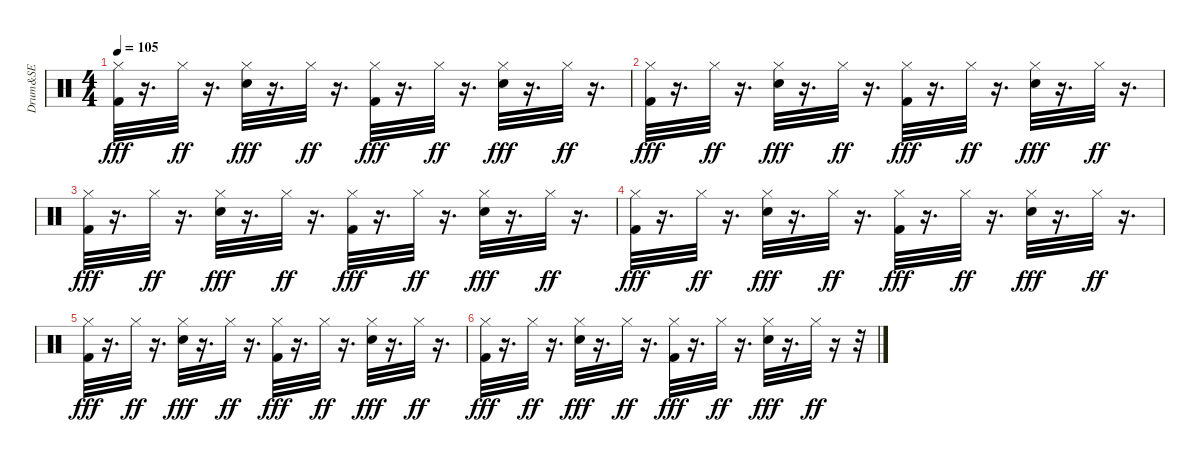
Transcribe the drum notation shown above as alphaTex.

\track ("Drum&SE" "Drum&SE") {instrument percussion}
\staff {score}
\articulation defaults
\ts (4 4)
\tempo 105
\clef neutral
\ks c
("Kick (hit) 2" "Hi-Hat (closed)").32{dy fff volume 4} r.16{d} "Hi-Hat (closed)".32{dy ff} r.16{d} ("Snare (hit) 2" "Hi-Hat (closed)").32{dy fff volume 4} r.16{d} "Hi-Hat (closed)".32{dy ff volume 4} r.16{d} ("Kick (hit) 2" "Hi-Hat (closed)").32{dy fff} r.16{d} "Hi-Hat (closed)".32{dy ff volume 4} r.16{d} ("Snare (hit) 2" "Hi-Hat (closed)").32{dy fff volume 4} r.16{d} "Hi-Hat (closed)".32{dy ff volume 4} r.16{d} |
("Kick (hit) 2" "Hi-Hat (closed)").32{dy fff} r.16{d} "Hi-Hat (closed)".32{dy ff volume 4} r.16{d} ("Snare (hit) 2" "Hi-Hat (closed)").32{dy fff volume 4} r.16{d} "Hi-Hat (closed)".32{dy ff volume 3} r.16{d} ("Kick (hit) 2" "Hi-Hat (closed)").32{dy fff} r.16{d} "Hi-Hat (closed)".32{dy ff volume 3} r.16{d} ("Snare (hit) 2" "Hi-Hat (closed)").32{dy fff volume 3} r.16{d} "Hi-Hat (closed)".32{dy ff} r.16{d} |
("Kick (hit) 2" "Hi-Hat (closed)").32{dy fff volume 3} r.16{d} "Hi-Hat (closed)".32{dy ff volume 3} r.16{d} ("Snare (hit) 2" "Hi-Hat (closed)").32{dy fff volume 3} r.16{d} "Hi-Hat (closed)".32{dy ff} r.16{d} ("Kick (hit) 2" "Hi-Hat (closed)").32{dy fff volume 3} r.16{d} "Hi-Hat (closed)".32{dy ff volume 2} r.16{d} ("Snare (hit) 2" "Hi-Hat (closed)").32{dy fff volume 2} r.16{d} "Hi-Hat (closed)".32{dy ff} r.16{d} |
("Kick (hit) 2" "Hi-Hat (closed)").32{dy fff volume 2} r.16{d} "Hi-Hat (closed)".32{dy ff volume 2} r.16{d} ("Snare (hit) 2" "Hi-Hat (closed)").32{dy fff} r.16{d} "Hi-Hat (closed)".32{dy ff volume 2} r.16{d} ("Kick (hit) 2" "Hi-Hat (closed)").32{dy fff volume 2} r.16{d} "Hi-Hat (closed)".32{dy ff volume 2} r.16{d} ("Snare (hit) 2" "Hi-Hat (closed)").32{dy fff} r.16{d} "Hi-Hat (closed)".32{dy ff volume 2} r.16{d} |
("Kick (hit) 2" "Hi-Hat (closed)").32{dy fff volume 2} r.16{d} "Hi-Hat (closed)".32{dy ff volume 1} r.16{d} ("Snare (hit) 2" "Hi-Hat (closed)").32{dy fff} r.16{d} "Hi-Hat (closed)".32{dy ff volume 1} r.16{d} ("Kick (hit) 2" "Hi-Hat (closed)").32{dy fff volume 1} r.16{d} "Hi-Hat (closed)".32{dy ff} r.16{d} ("Snare (hit) 2" "Hi-Hat (closed)").32{dy fff volume 1} r.16{d} "Hi-Hat (closed)".32{dy ff volume 1} r.16{d} |
("Kick (hit) 2" "Hi-Hat (closed)").32{dy fff volume 1} r.16{d} "Hi-Hat (closed)".32{dy ff} r.16{d} ("Snare (hit) 2" "Hi-Hat (closed)").32{dy fff volume 1} r.16{d} "Hi-Hat (closed)".32{dy ff volume 0} r.16{d} ("Kick (hit) 2" "Hi-Hat (closed)").32{dy fff volume 0} r.16{d} "Hi-Hat (closed)".32{dy ff} r.16{d} ("Snare (hit) 2" "Hi-Hat (closed)").32{dy fff volume 0} r.16{d} "Hi-Hat (closed)".32{dy ff volume 0} r.16 r.32
